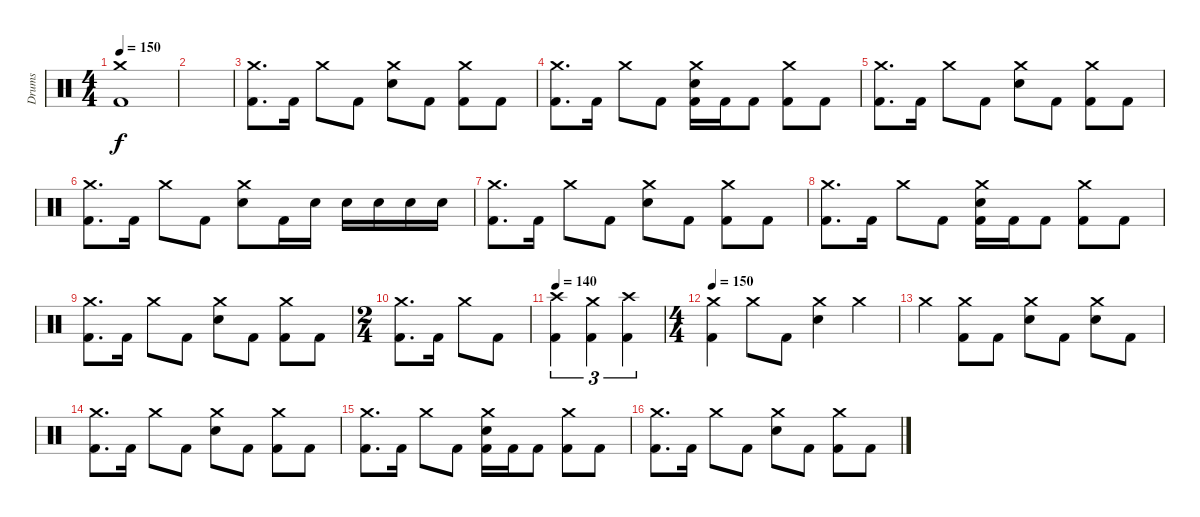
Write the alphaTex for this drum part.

\track ("Drums" "Drums") {instrument percussion bank 255}
\staff {score}
\articulation defaults
\ts (4 4)
\tempo 150
\clef neutral
\ks c
("Crash medium (hit)" "Kick (hit) 2").1{dy f} |
|
("Crash medium (hit)" "Kick (hit) 2").8{d} "Kick (hit) 2".16 "Crash medium (hit)".8 "Kick (hit) 2".8 ("Crash medium (hit)" "Electric Snare (hit)").8 "Kick (hit) 2".8 ("Crash medium (hit)" "Kick (hit) 2").8 "Kick (hit) 2".8 |
("Crash medium (hit)" "Kick (hit) 2").8{d} "Kick (hit) 2".16 "Crash medium (hit)".8 "Kick (hit) 2".8 ("Crash medium (hit)" "Electric Snare (hit)" "Kick (hit) 2").16 "Kick (hit) 2".16 "Kick (hit) 2".8 ("Crash medium (hit)" "Kick (hit) 2").8 "Kick (hit) 2".8 |
("Crash medium (hit)" "Kick (hit) 2").8{d} "Kick (hit) 2".16 "Crash medium (hit)".8 "Kick (hit) 2".8 ("Crash medium (hit)" "Electric Snare (hit)").8 "Kick (hit) 2".8 ("Crash medium (hit)" "Kick (hit) 2").8 "Kick (hit) 2".8 |
("Crash medium (hit)" "Kick (hit) 2").8{d} "Kick (hit) 2".16 "Crash medium (hit)".8 "Kick (hit) 2".8 ("Crash medium (hit)" "Electric Snare (hit)").8 "Kick (hit) 2".16 "Electric Snare (hit)".16 "Electric Snare (hit)".16 "Electric Snare (hit)".16 "Electric Snare (hit)".16 "Electric Snare (hit)".16 |
("Crash medium (hit)" "Kick (hit) 2").8{d} "Kick (hit) 2".16 "Crash medium (hit)".8 "Kick (hit) 2".8 ("Crash medium (hit)" "Electric Snare (hit)").8 "Kick (hit) 2".8 ("Crash medium (hit)" "Kick (hit) 2").8 "Kick (hit) 2".8 |
("Crash medium (hit)" "Kick (hit) 2").8{d} "Kick (hit) 2".16 "Crash medium (hit)".8 "Kick (hit) 2".8 ("Crash medium (hit)" "Electric Snare (hit)" "Kick (hit) 2").16 "Kick (hit) 2".16 "Kick (hit) 2".8 ("Crash medium (hit)" "Kick (hit) 2").8 "Kick (hit) 2".8 |
("Crash medium (hit)" "Kick (hit) 2").8{d} "Kick (hit) 2".16 "Crash medium (hit)".8 "Kick (hit) 2".8 ("Crash medium (hit)" "Electric Snare (hit)").8 "Kick (hit) 2".8 ("Crash medium (hit)" "Kick (hit) 2").8 "Kick (hit) 2".8 |
\ts (2 4)
("Crash medium (hit)" "Kick (hit) 2").8{d} "Kick (hit) 2".16 "Crash medium (hit)".8 "Kick (hit) 2".8 |
\tempo 140
("Crash high (hit)" "Kick (hit) 2").4{tu (3 2)} ("Crash medium (hit)" "Kick (hit) 2").4{tu (3 2)} ("Crash high (hit)" "Kick (hit) 2").4{tu (3 2)} |
\ts (4 4)
\tempo 150
("Crash medium (hit)" "Kick (hit) 2").4 "Crash medium (hit)".8 "Kick (hit) 2".8 ("Crash medium (hit)" "Electric Snare (hit)").4 "Crash medium (hit)".4 |
"Crash medium (hit)".4 ("Crash medium (hit)" "Kick (hit) 2").8 "Kick (hit) 2".8 ("Crash medium (hit)" "Electric Snare (hit)").8 "Kick (hit) 2".8 ("Crash medium (hit)" "Electric Snare (hit)").8 "Kick (hit) 2".8 |
("Crash medium (hit)" "Kick (hit) 2").8{d} "Kick (hit) 2".16 "Crash medium (hit)".8 "Kick (hit) 2".8 ("Crash medium (hit)" "Electric Snare (hit)").8 "Kick (hit) 2".8 ("Crash medium (hit)" "Kick (hit) 2").8 "Kick (hit) 2".8 |
("Crash medium (hit)" "Kick (hit) 2").8{d} "Kick (hit) 2".16 "Crash medium (hit)".8 "Kick (hit) 2".8 ("Crash medium (hit)" "Electric Snare (hit)" "Kick (hit) 2").16 "Kick (hit) 2".16 "Kick (hit) 2".8 ("Crash medium (hit)" "Kick (hit) 2").8 "Kick (hit) 2".8 |
("Crash medium (hit)" "Kick (hit) 2").8{d} "Kick (hit) 2".16 "Crash medium (hit)".8 "Kick (hit) 2".8 ("Crash medium (hit)" "Electric Snare (hit)").8 "Kick (hit) 2".8 ("Crash medium (hit)" "Kick (hit) 2").8 "Kick (hit) 2".8
